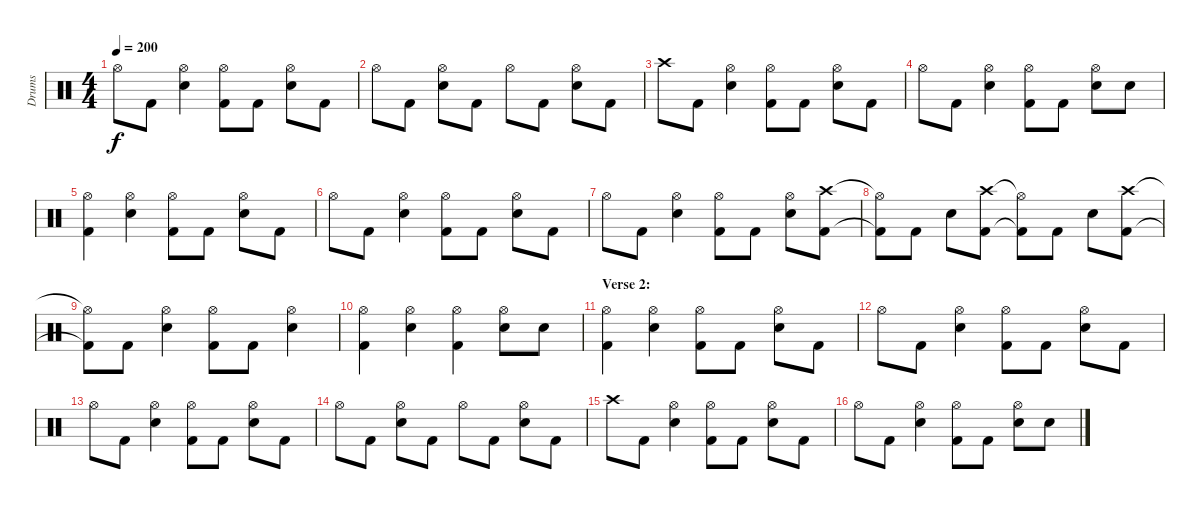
\track ("Drums" "Drums") {instrument percussion}
\staff {score}
\articulation defaults
\ts (4 4)
\tempo 200
\clef neutral
\ks c "Hi-Hat (open)".8{dy f} "Kick (hit) 2".8
("Hi-Hat (open)" "Electric Snare (hit)").4 ("Hi-Hat (open)" "Kick (hit) 2").8 "Kick (hit) 2".8 ("Hi-Hat (open)" "Electric Snare (hit)").8 "Kick (hit) 2".8 |
"Hi-Hat (open)".8 "Kick (hit) 2".8 ("Hi-Hat (open)" "Electric Snare (hit)").8 "Kick (hit) 2".8 "Hi-Hat (open)".8 "Kick (hit) 2".8 ("Hi-Hat (open)" "Electric Snare (hit)").8 "Kick (hit) 2".8 |
"Crash high (hit)".8 "Kick (hit) 2".8 ("Hi-Hat (open)" "Electric Snare (hit)").4 ("Hi-Hat (open)" "Kick (hit) 2").8 "Kick (hit) 2".8 ("Hi-Hat (open)" "Electric Snare (hit)").8 "Kick (hit) 2".8 |
"Hi-Hat (open)".8 "Kick (hit) 2".8 ("Hi-Hat (open)" "Electric Snare (hit)").4 ("Hi-Hat (open)" "Kick (hit) 2").8 "Kick (hit) 2".8 ("Hi-Hat (open)" "Electric Snare (hit)").8 "Electric Snare (hit)".8 |
("Hi-Hat (open)" "Kick (hit) 2").4 ("Hi-Hat (open)" "Electric Snare (hit)").4 ("Hi-Hat (open)" "Kick (hit) 2").8 "Kick (hit) 2".8 ("Hi-Hat (open)" "Electric Snare (hit)").8 "Kick (hit) 2".8 |
"Hi-Hat (open)".8 "Kick (hit) 2".8 ("Hi-Hat (open)" "Electric Snare (hit)").4 ("Hi-Hat (open)" "Kick (hit) 2").8 "Kick (hit) 2".8 ("Hi-Hat (open)" "Electric Snare (hit)").8 "Kick (hit) 2".8 |
"Hi-Hat (open)".8 "Kick (hit) 2".8 ("Hi-Hat (open)" "Electric Snare (hit)").4 ("Hi-Hat (open)" "Kick (hit) 2").8 "Kick (hit) 2".8 ("Hi-Hat (open)" "Electric Snare (hit)").8 ("Crash high (hit)" "Kick (hit) 2").8 |
("Hi-Hat (open)"{t} "Kick (hit) 2"{t}).8 "Kick (hit) 2".8 "Electric Snare (hit)".8 ("Crash high (hit)" "Kick (hit) 2").8 ("Hi-Hat (open)"{t} "Kick (hit) 2"{t}).8 "Kick (hit) 2".8 "Electric Snare (hit)".8 ("Crash high (hit)" "Kick (hit) 2").8 |
("Hi-Hat (open)"{t} "Kick (hit) 2"{t}).8 "Kick (hit) 2".8 ("Hi-Hat (open)" "Electric Snare (hit)").4 ("Hi-Hat (open)" "Kick (hit) 2").8 "Kick (hit) 2".8 ("Hi-Hat (open)" "Electric Snare (hit)").4 |
("Hi-Hat (open)" "Kick (hit) 2").4 ("Hi-Hat (open)" "Electric Snare (hit)").4 ("Hi-Hat (open)" "Kick (hit) 2").4 ("Hi-Hat (open)" "Electric Snare (hit)").8 "Electric Snare (hit)".8 |
\section ("" "Verse 2:")
("Hi-Hat (open)" "Kick (hit) 2").4 ("Hi-Hat (open)" "Electric Snare (hit)").4 ("Hi-Hat (open)" "Kick (hit) 2").8 "Kick (hit) 2".8 ("Hi-Hat (open)" "Electric Snare (hit)").8 "Kick (hit) 2".8 |
"Hi-Hat (open)".8 "Kick (hit) 2".8 ("Hi-Hat (open)" "Electric Snare (hit)").4 ("Hi-Hat (open)" "Kick (hit) 2").8 "Kick (hit) 2".8 ("Hi-Hat (open)" "Electric Snare (hit)").8 "Kick (hit) 2".8 |
"Hi-Hat (open)".8 "Kick (hit) 2".8 ("Hi-Hat (open)" "Electric Snare (hit)").4 ("Hi-Hat (open)" "Kick (hit) 2").8 "Kick (hit) 2".8 ("Hi-Hat (open)" "Electric Snare (hit)").8 "Kick (hit) 2".8 |
"Hi-Hat (open)".8 "Kick (hit) 2".8 ("Hi-Hat (open)" "Electric Snare (hit)").8 "Kick (hit) 2".8 "Hi-Hat (open)".8 "Kick (hit) 2".8 ("Hi-Hat (open)" "Electric Snare (hit)").8 "Kick (hit) 2".8 |
"Crash high (hit)".8 "Kick (hit) 2".8 ("Hi-Hat (open)" "Electric Snare (hit)").4 ("Hi-Hat (open)" "Kick (hit) 2").8 "Kick (hit) 2".8 ("Hi-Hat (open)" "Electric Snare (hit)").8 "Kick (hit) 2".8 |
"Hi-Hat (open)".8 "Kick (hit) 2".8 ("Hi-Hat (open)" "Electric Snare (hit)").4 ("Hi-Hat (open)" "Kick (hit) 2").8 "Kick (hit) 2".8 ("Hi-Hat (open)" "Electric Snare (hit)").8 "Electric Snare (hit)".8
